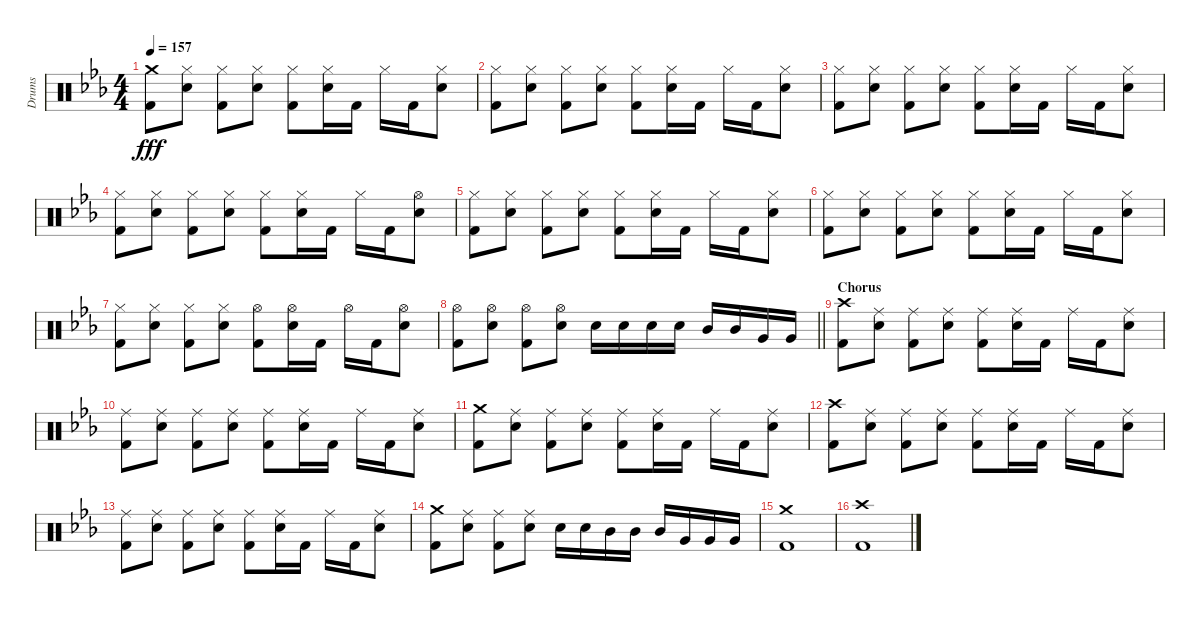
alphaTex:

\track ("Drums" "Drums") {instrument percussion}
\staff {score}
\articulation defaults
\ts (4 4)
\tempo 157
\clef neutral
\ks eb
("Crash medium (hit)" "Kick (hit) 2").8{dy fff} ("Hi-Hat (closed)" "Snare (hit) 2").8 ("Hi-Hat (closed)" "Kick (hit) 2").8 ("Hi-Hat (closed)" "Snare (hit) 2").8 ("Hi-Hat (closed)" "Kick (hit) 2").8 ("Hi-Hat (closed)" "Snare (hit) 2").16 "Kick (hit) 2".16 "Hi-Hat (closed)".16 "Kick (hit) 2".16 ("Hi-Hat (closed)" "Snare (hit) 2").8 |
("Hi-Hat (closed)" "Kick (hit) 2").8 ("Hi-Hat (closed)" "Snare (hit) 2").8 ("Hi-Hat (closed)" "Kick (hit) 2").8 ("Hi-Hat (closed)" "Snare (hit) 2").8 ("Hi-Hat (closed)" "Kick (hit) 2").8 ("Hi-Hat (closed)" "Snare (hit) 2").16 "Kick (hit) 2".16 "Hi-Hat (closed)".16 "Kick (hit) 2".16 ("Hi-Hat (closed)" "Snare (hit) 2").8 |
("Hi-Hat (closed)" "Kick (hit) 2").8 ("Hi-Hat (closed)" "Snare (hit) 2").8 ("Hi-Hat (closed)" "Kick (hit) 2").8 ("Hi-Hat (closed)" "Snare (hit) 2").8 ("Hi-Hat (closed)" "Kick (hit) 2").8 ("Hi-Hat (closed)" "Snare (hit) 2").16 "Kick (hit) 2".16 "Hi-Hat (closed)".16 "Kick (hit) 2".16 ("Hi-Hat (closed)" "Snare (hit) 2").8 |
("Hi-Hat (closed)" "Kick (hit) 2").8 ("Hi-Hat (closed)" "Snare (hit) 2").8 ("Hi-Hat (closed)" "Kick (hit) 2").8 ("Hi-Hat (closed)" "Snare (hit) 2").8 ("Hi-Hat (closed)" "Kick (hit) 2").8 ("Hi-Hat (closed)" "Snare (hit) 2").16 "Kick (hit) 2".16 "Hi-Hat (closed)".16 "Kick (hit) 2".16 ("Hi-Hat (open)" "Snare (hit) 2").8 |
("Hi-Hat (closed)" "Kick (hit) 2").8 ("Hi-Hat (closed)" "Snare (hit) 2").8 ("Hi-Hat (closed)" "Kick (hit) 2").8 ("Hi-Hat (closed)" "Snare (hit) 2").8 ("Hi-Hat (closed)" "Kick (hit) 2").8 ("Hi-Hat (closed)" "Snare (hit) 2").16 "Kick (hit) 2".16 "Hi-Hat (closed)".16 "Kick (hit) 2".16 ("Hi-Hat (closed)" "Snare (hit) 2").8 |
("Hi-Hat (closed)" "Kick (hit) 2").8 ("Hi-Hat (closed)" "Snare (hit) 2").8 ("Hi-Hat (closed)" "Kick (hit) 2").8 ("Hi-Hat (closed)" "Snare (hit) 2").8 ("Hi-Hat (closed)" "Kick (hit) 2").8 ("Hi-Hat (closed)" "Snare (hit) 2").16 "Kick (hit) 2".16 "Hi-Hat (closed)".16 "Kick (hit) 2".16 ("Hi-Hat (closed)" "Snare (hit) 2").8 |
("Hi-Hat (closed)" "Kick (hit) 2").8 ("Hi-Hat (closed)" "Snare (hit) 2").8 ("Hi-Hat (closed)" "Kick (hit) 2").8 ("Hi-Hat (closed)" "Snare (hit) 2").8 ("Hi-Hat (open)" "Kick (hit) 2").8 ("Hi-Hat (open)" "Snare (hit) 2").16 "Kick (hit) 2".16 "Hi-Hat (open)".16 "Kick (hit) 2".16 ("Hi-Hat (open)" "Snare (hit) 2").8 |
\barLineRight lightlight
("Hi-Hat (open)" "Kick (hit) 2").8 ("Hi-Hat (open)" "Snare (hit) 2").8 ("Hi-Hat (open)" "Kick (hit) 2").8 ("Hi-Hat (open)" "Snare (hit) 2").8 "Snare (hit) 2".16 "Snare (hit) 2".16 "Snare (hit) 2".16 "Snare (hit) 2".16 "Mid Tom (hit)".16 "Mid Tom (hit)".16 "Very Low Tom (hit)".16 "Very Low Tom (hit)".16 |
\section ("" "Chorus")
("Crash high (hit)" "Kick (hit) 2").8 ("Ride (middle)" "Snare (hit) 2").8 ("Ride (middle)" "Kick (hit) 2").8 ("Ride (middle)" "Snare (hit) 2").8 ("Ride (middle)" "Kick (hit) 2").8 ("Ride (middle)" "Snare (hit) 2").16 "Kick (hit) 2".16 "Ride (middle)".16 "Kick (hit) 2".16 ("Ride (middle)" "Snare (hit) 2").8 |
("Ride (middle)" "Kick (hit) 2").8 ("Ride (middle)" "Snare (hit) 2").8 ("Ride (middle)" "Kick (hit) 2").8 ("Ride (middle)" "Snare (hit) 2").8 ("Ride (middle)" "Kick (hit) 2").8 ("Ride (middle)" "Snare (hit) 2").16 "Kick (hit) 2".16 "Ride (middle)".16 "Kick (hit) 2".16 ("Ride (middle)" "Snare (hit) 2").8 |
("Crash medium (hit)" "Kick (hit) 2").8 ("Ride (middle)" "Snare (hit) 2").8 ("Ride (middle)" "Kick (hit) 2").8 ("Ride (middle)" "Snare (hit) 2").8 ("Ride (middle)" "Kick (hit) 2").8 ("Ride (middle)" "Snare (hit) 2").16 "Kick (hit) 2".16 "Ride (middle)".16 "Kick (hit) 2".16 ("Ride (middle)" "Snare (hit) 2").8 |
("Crash high (hit)" "Kick (hit) 2").8 ("Ride (middle)" "Snare (hit) 2").8 ("Ride (middle)" "Kick (hit) 2").8 ("Ride (middle)" "Snare (hit) 2").8 ("Ride (middle)" "Kick (hit) 2").8 ("Ride (middle)" "Snare (hit) 2").16 "Kick (hit) 2".16 "Ride (middle)".16 "Kick (hit) 2".16 ("Ride (middle)" "Snare (hit) 2").8 |
("Ride (middle)" "Kick (hit) 2").8 ("Ride (middle)" "Snare (hit) 2").8 ("Ride (middle)" "Kick (hit) 2").8 ("Ride (middle)" "Snare (hit) 2").8 ("Ride (middle)" "Kick (hit) 2").8 ("Ride (middle)" "Snare (hit) 2").16 "Kick (hit) 2".16 "Ride (middle)".16 "Kick (hit) 2".16 ("Ride (middle)" "Snare (hit) 2").8 |
("Crash medium (hit)" "Kick (hit) 2").8 ("Ride (middle)" "Snare (hit) 2").8 ("Ride (middle)" "Kick (hit) 2").8 ("Ride (middle)" "Snare (hit) 2").8 "Snare (hit) 2".16 "Snare (hit) 2".16 "Mid Tom (hit)".16 "Mid Tom (hit)".16 "Mid Tom (hit)".16 "Very Low Tom (hit)".16 "Very Low Tom (hit)".16 "Very Low Tom (hit)".16 |
("Crash medium (hit)" "Kick (hit) 2").1 |
("Crash high (hit)" "Kick (hit) 2").1
